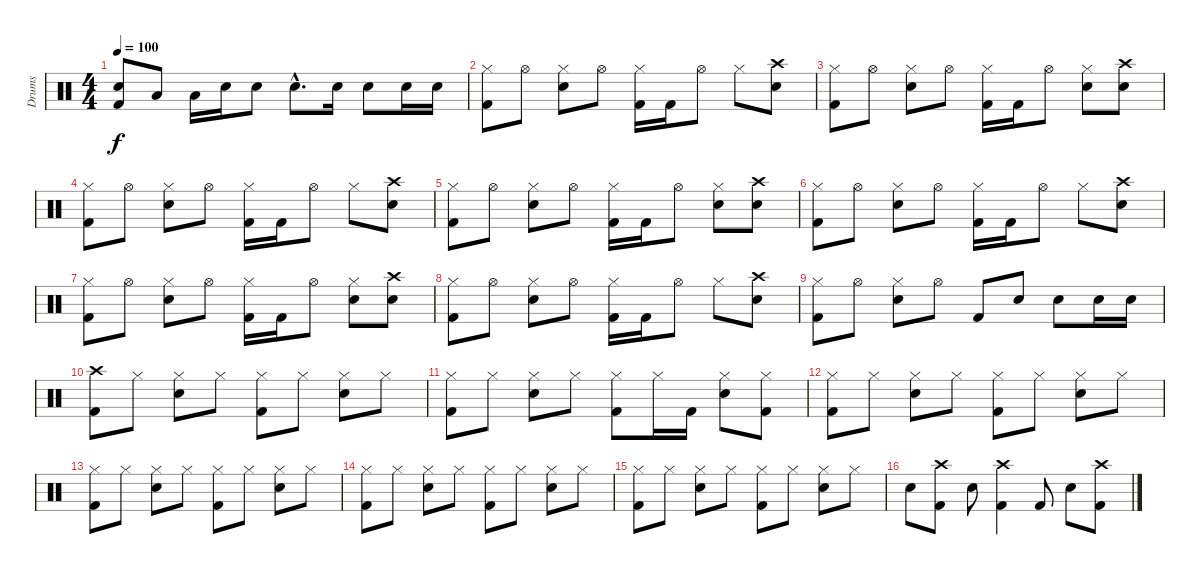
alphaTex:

\track ("Drums" "Drums") {instrument percussion}
\staff {score}
\articulation defaults
\ts (4 4)
\tempo 100
\clef neutral
\ks c
("Electric Snare (hit)" "Kick (hit) 2").8{dy f} "Low Tom (hit)".8 "Low Tom (hit)".16 "Electric Snare (hit)".16 "Electric Snare (hit)".8 "Electric Snare (hit)"{hac}.8{d} "Electric Snare (hit)".16 "Electric Snare (hit)".8 "Electric Snare (hit)".16 "Electric Snare (hit)".16 |
("Hi-Hat (closed)" "Kick (hit) 2").8 "Hi-Hat (open)".8 ("Hi-Hat (closed)" "Electric Snare (hit)").8 "Hi-Hat (open)".8 ("Hi-Hat (closed)" "Kick (hit) 2").16 "Kick (hit) 2".16 "Hi-Hat (open)".8 "Hi-Hat (closed)".8 ("Crash high (hit)" "Electric Snare (hit)").8 |
("Hi-Hat (closed)" "Kick (hit) 2").8 "Hi-Hat (open)".8 ("Hi-Hat (closed)" "Electric Snare (hit)").8 "Hi-Hat (open)".8 ("Hi-Hat (closed)" "Kick (hit) 2").16 "Kick (hit) 2".16 "Hi-Hat (open)".8 ("Hi-Hat (closed)" "Electric Snare (hit)").8 ("Crash high (hit)" "Electric Snare (hit)").8 |
("Hi-Hat (closed)" "Kick (hit) 2").8 "Hi-Hat (open)".8 ("Hi-Hat (closed)" "Electric Snare (hit)").8 "Hi-Hat (open)".8 ("Hi-Hat (closed)" "Kick (hit) 2").16 "Kick (hit) 2".16 "Hi-Hat (open)".8 "Hi-Hat (closed)".8 ("Crash high (hit)" "Electric Snare (hit)").8 |
("Hi-Hat (closed)" "Kick (hit) 2").8 "Hi-Hat (open)".8 ("Hi-Hat (closed)" "Electric Snare (hit)").8 "Hi-Hat (open)".8 ("Hi-Hat (closed)" "Kick (hit) 2").16 "Kick (hit) 2".16 "Hi-Hat (open)".8 ("Hi-Hat (closed)" "Electric Snare (hit)").8 ("Crash high (hit)" "Electric Snare (hit)").8 |
("Hi-Hat (closed)" "Kick (hit) 2").8 "Hi-Hat (open)".8 ("Hi-Hat (closed)" "Electric Snare (hit)").8 "Hi-Hat (open)".8 ("Hi-Hat (closed)" "Kick (hit) 2").16 "Kick (hit) 2".16 "Hi-Hat (open)".8 "Hi-Hat (closed)".8 ("Crash high (hit)" "Electric Snare (hit)").8 |
("Hi-Hat (closed)" "Kick (hit) 2").8 "Hi-Hat (open)".8 ("Hi-Hat (closed)" "Electric Snare (hit)").8 "Hi-Hat (open)".8 ("Hi-Hat (closed)" "Kick (hit) 2").16 "Kick (hit) 2".16 "Hi-Hat (open)".8 ("Hi-Hat (closed)" "Electric Snare (hit)").8 ("Crash high (hit)" "Electric Snare (hit)").8 |
("Hi-Hat (closed)" "Kick (hit) 2").8 "Hi-Hat (open)".8 ("Hi-Hat (closed)" "Electric Snare (hit)").8 "Hi-Hat (open)".8 ("Hi-Hat (closed)" "Kick (hit) 2").16 "Kick (hit) 2".16 "Hi-Hat (open)".8 "Hi-Hat (closed)".8 ("Crash high (hit)" "Electric Snare (hit)").8 |
("Hi-Hat (closed)" "Kick (hit) 2").8 "Hi-Hat (open)".8 ("Hi-Hat (closed)" "Electric Snare (hit)").8 "Hi-Hat (open)".8 "Kick (hit) 2".8 "Electric Snare (hit)".8 "Electric Snare (hit)".8 "Electric Snare (hit)".16 "Electric Snare (hit)".16 |
("Crash high (hit)" "Kick (hit) 2").8 "Hi-Hat (closed)".8 ("Hi-Hat (closed)" "Electric Snare (hit)").8 "Hi-Hat (closed)".8 ("Hi-Hat (closed)" "Kick (hit) 2").8 "Hi-Hat (closed)".8 ("Hi-Hat (closed)" "Electric Snare (hit)").8 "Hi-Hat (closed)".8 |
("Hi-Hat (closed)" "Kick (hit) 2").8 "Hi-Hat (closed)".8 ("Hi-Hat (closed)" "Electric Snare (hit)").8 "Hi-Hat (closed)".8 ("Hi-Hat (closed)" "Kick (hit) 2").8 "Hi-Hat (closed)".16 "Kick (hit) 2".16 ("Hi-Hat (closed)" "Electric Snare (hit)").8 ("Hi-Hat (closed)" "Kick (hit) 2").8 |
("Hi-Hat (closed)" "Kick (hit) 2").8 "Hi-Hat (closed)".8 ("Hi-Hat (closed)" "Electric Snare (hit)").8 "Hi-Hat (closed)".8 ("Hi-Hat (closed)" "Kick (hit) 2").8 "Hi-Hat (closed)".8 ("Hi-Hat (closed)" "Electric Snare (hit)").8 "Hi-Hat (closed)".8 |
("Hi-Hat (closed)" "Kick (hit) 2").8 "Hi-Hat (closed)".8 ("Hi-Hat (closed)" "Electric Snare (hit)").8 "Hi-Hat (closed)".8 ("Hi-Hat (closed)" "Kick (hit) 2").8 "Hi-Hat (closed)".8 ("Hi-Hat (closed)" "Electric Snare (hit)").8 "Hi-Hat (closed)".8 |
("Hi-Hat (closed)" "Kick (hit) 2").8 "Hi-Hat (closed)".8 ("Hi-Hat (closed)" "Electric Snare (hit)").8 "Hi-Hat (closed)".8 ("Hi-Hat (closed)" "Kick (hit) 2").8 "Hi-Hat (closed)".8 ("Hi-Hat (closed)" "Electric Snare (hit)").8 "Hi-Hat (closed)".8 |
("Hi-Hat (closed)" "Kick (hit) 2").8 "Hi-Hat (closed)".8 ("Hi-Hat (closed)" "Electric Snare (hit)").8 "Hi-Hat (closed)".8 ("Hi-Hat (closed)" "Kick (hit) 2").8 "Hi-Hat (closed)".8 ("Hi-Hat (closed)" "Electric Snare (hit)").8 "Hi-Hat (closed)".8 |
"Electric Snare (hit)".8 ("Crash high (hit)" "Kick (hit) 2").8 "Electric Snare (hit)".8 ("Crash high (hit)" "Kick (hit) 2").4 "Kick (hit) 2".8 "Electric Snare (hit)".8 ("Crash high (hit)" "Kick (hit) 2").8
